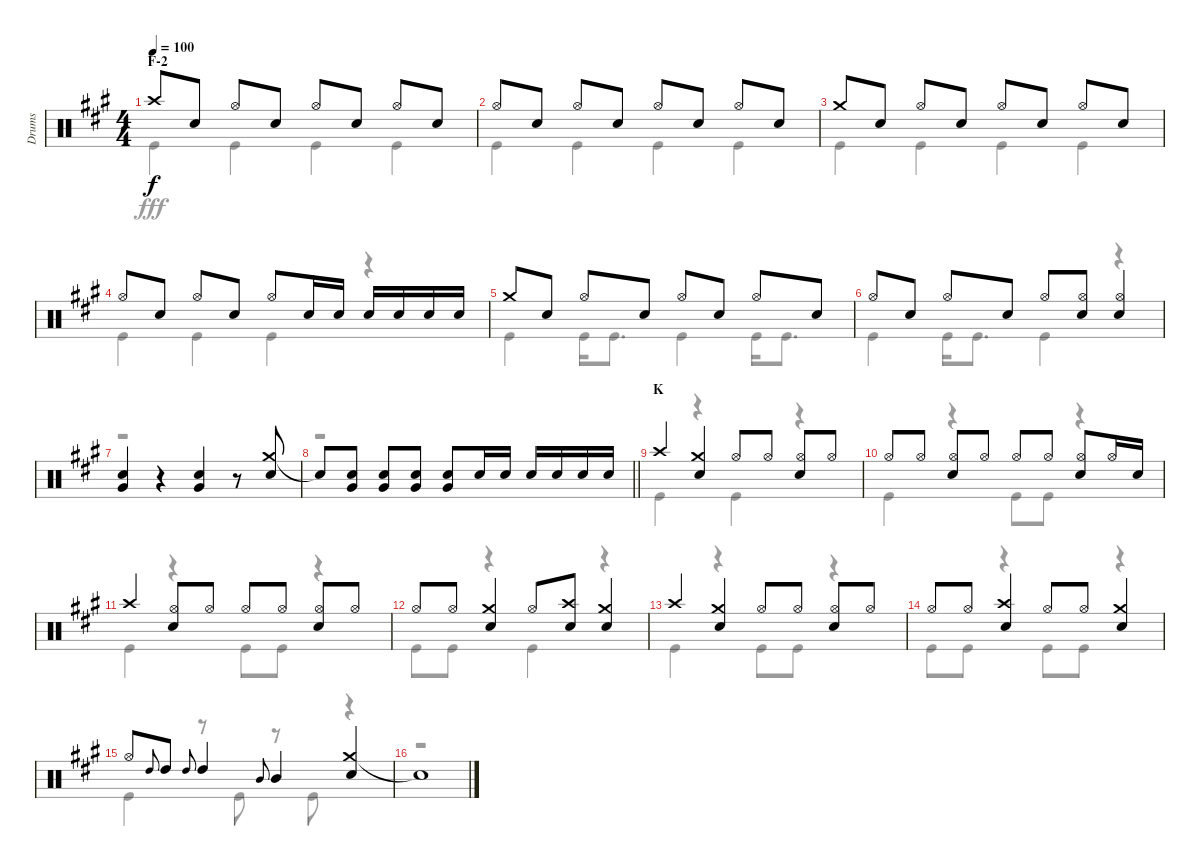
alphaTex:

\track ("Drums" "Drums") {instrument percussion}
\staff {score}
\articulation defaults
\voice
\ts (4 4)
\section ("" "F-2")
\tempo 100
\clef neutral
\ks a "Crash high (hit)".8{dy f} "Snare (hit) 2".8 "Hi-Hat (open)".8 "Snare (hit) 2".8 "Hi-Hat (open)".8 "Snare (hit) 2".8 "Hi-Hat (open)".8 "Snare (hit) 2".8
|
"Hi-Hat (open)".8 "Snare (hit) 2".8 "Hi-Hat (open)".8 "Snare (hit) 2".8 "Hi-Hat (open)".8 "Snare (hit) 2".8 "Hi-Hat (open)".8 "Snare (hit) 2".8 |
"Crash medium (hit)".8 "Snare (hit) 2".8 "Hi-Hat (open)".8 "Snare (hit) 2".8 "Hi-Hat (open)".8 "Snare (hit) 2".8 "Hi-Hat (open)".8 "Snare (hit) 2".8 |
"Hi-Hat (open)".8 "Snare (hit) 2".8 "Hi-Hat (open)".8 "Snare (hit) 2".8 "Hi-Hat (open)".8 "Snare (hit) 2".16 "Snare (hit) 2".16 "Snare (hit) 2".16 "Snare (hit) 2".16 "Snare (hit) 2".16 "Snare (hit) 2".16 |
"Crash medium (hit)".8 "Snare (hit) 2".8 "Hi-Hat (open)".8 "Snare (hit) 2".8 "Hi-Hat (open)".8 "Snare (hit) 2".8 "Hi-Hat (open)".8 "Snare (hit) 2".8 |
"Hi-Hat (open)".8 "Snare (hit) 2".8 "Hi-Hat (open)".8 "Snare (hit) 2".8 "Hi-Hat (open)".8 ("Hi-Hat (open)" "Snare (hit) 2").8 ("Hi-Hat (open)" "Snare (hit) 2").4 |
("Snare (hit) 2" "Very Low Tom (hit)").4 r.4 ("Snare (hit) 2" "Very Low Tom (hit)").4 r.8 ("Crash medium (hit)" "Snare (hit) 2").8 |
\barLineRight lightlight "Snare (hit)"{t}.8
("Snare (hit) 2" "Very Low Tom (hit)").8 ("Snare (hit) 2" "Very Low Tom (hit)").8 ("Snare (hit) 2" "Very Low Tom (hit)").8 ("Snare (hit) 2" "Very Low Tom (hit)").8 "Snare (hit) 2".16 "Snare (hit) 2".16 "Snare (hit) 2".16 "Snare (hit) 2".16 "Snare (hit) 2".16 "Snare (hit) 2".16 |
\section ("" "K")
"Crash high (hit)".4 ("Crash medium (hit)" "Snare (hit) 2").4 "Hi-Hat (open)".8 "Hi-Hat (open)".8 ("Hi-Hat (open)" "Snare (hit) 2").8 "Hi-Hat (open)".8 |
"Hi-Hat (open)".8 "Hi-Hat (open)".8 ("Hi-Hat (open)" "Snare (hit) 2").8 "Hi-Hat (open)".8 "Hi-Hat (open)".8 "Hi-Hat (open)".8 ("Hi-Hat (open)" "Snare (hit) 2").8 "Hi-Hat (open)".16 "Snare (hit) 2".16 |
"Crash high (hit)".4 ("Hi-Hat (open)" "Snare (hit) 2").8 "Hi-Hat (open)".8 "Hi-Hat (open)".8 "Hi-Hat (open)".8 ("Hi-Hat (open)" "Snare (hit) 2").8 "Hi-Hat (open)".8 |
"Hi-Hat (open)".8 "Hi-Hat (open)".8 ("Crash medium (hit)" "Snare (hit) 2").4 "Hi-Hat (open)".8 ("Crash high (hit)" "Snare (hit) 2").8 ("Crash medium (hit)" "Snare (hit) 2").4 |
"Crash high (hit)".4 ("Crash medium (hit)" "Snare (hit) 2").4 "Hi-Hat (open)".8 "Hi-Hat (open)".8 ("Hi-Hat (open)" "Snare (hit) 2").8 "Hi-Hat (open)".8 |
"Hi-Hat (open)".8 "Hi-Hat (open)".8 ("Crash high (hit)" "Snare (hit) 2").4 "Hi-Hat (open)".8 "Hi-Hat (open)".8 ("Crash medium (hit)" "Snare (hit) 2").4 |
"Hi-Hat (open)".8 "High Tom (hit)".8{gr onbeat} "High Tom (hit)".8 "High Tom (hit)".8{gr onbeat} "High Tom (hit)".4 "Mid Tom (hit)".8{gr onbeat} "Mid Tom (hit)".4 ("Crash medium (hit)" "Snare (hit) 2").4 |
"Snare (hit)"{t}.1
\voice
\clef neutral
\ottava regular
\simile none
\ks a "Kick (hit)".4{dy fff} "Kick (hit)".4 "Kick (hit)".4 "Kick (hit)".4
|
"Kick (hit)".4 "Kick (hit)".4 "Kick (hit)".4 "Kick (hit)".4 |
"Kick (hit)".4 "Kick (hit)".4 "Kick (hit)".4 "Kick (hit)".4 |
"Kick (hit)".4 "Kick (hit)".4 "Kick (hit)".4 r.4 |
"Kick (hit)".4 "Kick (hit)".16 "Kick (hit)".8{d} "Kick (hit)".4 "Kick (hit)".16 "Kick (hit)".8{d} |
"Kick (hit)".4 "Kick (hit)".16 "Kick (hit)".8{d} "Kick (hit)".4 r.4 |
r.1 |
\barLineRight lightlight
r.1 |
"Kick (hit)".4 r.4 "Kick (hit)".4 r.4 |
"Kick (hit)".4 r.4 "Kick (hit)".8 "Kick (hit)".8 r.4 |
"Kick (hit)".4 r.4 "Kick (hit)".8 "Kick (hit)".8 r.4 |
"Kick (hit)".8 "Kick (hit)".8 r.4 "Kick (hit)".4 r.4 |
"Kick (hit)".4 r.4 "Kick (hit)".8 "Kick (hit)".8 r.4 |
"Kick (hit)".8 "Kick (hit)".8 r.4 "Kick (hit)".8 "Kick (hit)".8 r.4 |
"Kick (hit)".4 r.8 "Kick (hit)".8 r.8 "Kick (hit)".8 r.4 |
r.1
